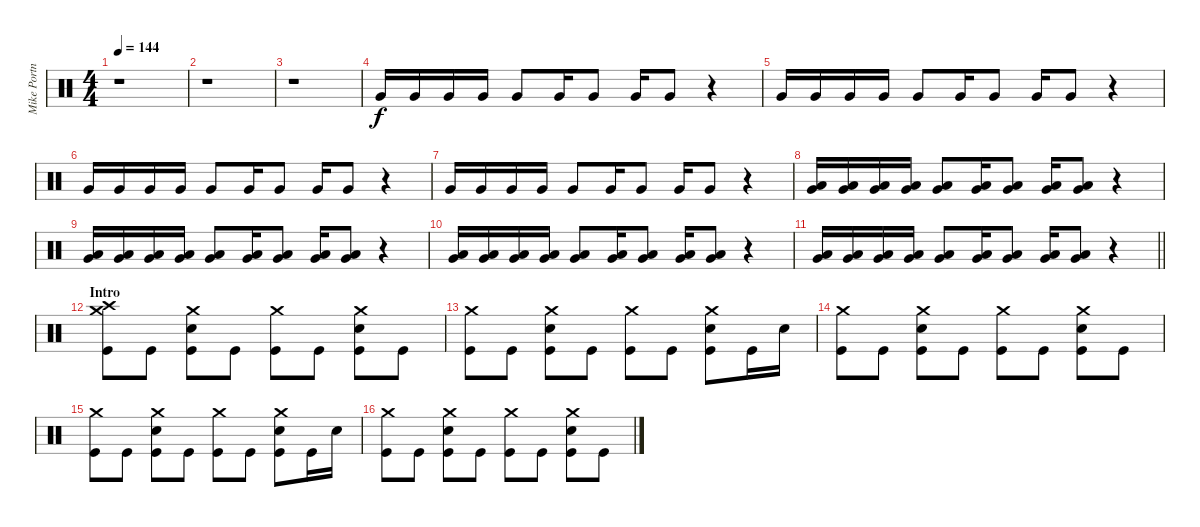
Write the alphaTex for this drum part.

\track ("Mike Portnoy" "Mike Portn") {instrument percussion}
\staff {score}
\articulation defaults
\ts (4 4)
\tempo 144
\clef neutral
\ks c
r.1{dy f} |
r.1 |
r.1 |
"Very Low Tom (hit)".16{balance 13} "Very Low Tom (hit)".16 "Very Low Tom (hit)".16 "Very Low Tom (hit)".16 "Very Low Tom (hit)".8 "Very Low Tom (hit)".16 "Very Low Tom (hit)".8 "Very Low Tom (hit)".16 "Very Low Tom (hit)".8 r.4 |
"Very Low Tom (hit)".16 "Very Low Tom (hit)".16 "Very Low Tom (hit)".16 "Very Low Tom (hit)".16 "Very Low Tom (hit)".8 "Very Low Tom (hit)".16 "Very Low Tom (hit)".8 "Very Low Tom (hit)".16 "Very Low Tom (hit)".8 r.4 |
"Very Low Tom (hit)".16 "Very Low Tom (hit)".16 "Very Low Tom (hit)".16 "Very Low Tom (hit)".16 "Very Low Tom (hit)".8 "Very Low Tom (hit)".16 "Very Low Tom (hit)".8 "Very Low Tom (hit)".16 "Very Low Tom (hit)".8 r.4 |
"Very Low Tom (hit)".16 "Very Low Tom (hit)".16 "Very Low Tom (hit)".16 "Very Low Tom (hit)".16 "Very Low Tom (hit)".8 "Very Low Tom (hit)".16 "Very Low Tom (hit)".8 "Very Low Tom (hit)".16 "Very Low Tom (hit)".8 r.4 |
("Very Low Tom (hit)" "Low Floor Tom (hit)").16{balance 8} ("Very Low Tom (hit)" "Low Floor Tom (hit)").16 ("Very Low Tom (hit)" "Low Floor Tom (hit)").16 ("Very Low Tom (hit)" "Low Floor Tom (hit)").16 ("Very Low Tom (hit)" "Low Floor Tom (hit)").8 ("Very Low Tom (hit)" "Low Floor Tom (hit)").16 ("Very Low Tom (hit)" "Low Floor Tom (hit)").8 ("Very Low Tom (hit)" "Low Floor Tom (hit)").16 ("Very Low Tom (hit)" "Low Floor Tom (hit)").8 r.4 |
("Very Low Tom (hit)" "Low Floor Tom (hit)").16 ("Very Low Tom (hit)" "Low Floor Tom (hit)").16 ("Very Low Tom (hit)" "Low Floor Tom (hit)").16 ("Very Low Tom (hit)" "Low Floor Tom (hit)").16 ("Very Low Tom (hit)" "Low Floor Tom (hit)").8 ("Very Low Tom (hit)" "Low Floor Tom (hit)").16 ("Very Low Tom (hit)" "Low Floor Tom (hit)").8 ("Very Low Tom (hit)" "Low Floor Tom (hit)").16 ("Very Low Tom (hit)" "Low Floor Tom (hit)").8 r.4 |
("Very Low Tom (hit)" "Low Floor Tom (hit)").16 ("Very Low Tom (hit)" "Low Floor Tom (hit)").16 ("Very Low Tom (hit)" "Low Floor Tom (hit)").16 ("Very Low Tom (hit)" "Low Floor Tom (hit)").16 ("Very Low Tom (hit)" "Low Floor Tom (hit)").8 ("Very Low Tom (hit)" "Low Floor Tom (hit)").16 ("Very Low Tom (hit)" "Low Floor Tom (hit)").8 ("Very Low Tom (hit)" "Low Floor Tom (hit)").16 ("Very Low Tom (hit)" "Low Floor Tom (hit)").8 r.4 |
\barLineRight lightlight
("Very Low Tom (hit)" "Low Floor Tom (hit)").16 ("Very Low Tom (hit)" "Low Floor Tom (hit)").16 ("Very Low Tom (hit)" "Low Floor Tom (hit)").16 ("Very Low Tom (hit)" "Low Floor Tom (hit)").16 ("Very Low Tom (hit)" "Low Floor Tom (hit)").8 ("Very Low Tom (hit)" "Low Floor Tom (hit)").16 ("Very Low Tom (hit)" "Low Floor Tom (hit)").8 ("Very Low Tom (hit)" "Low Floor Tom (hit)").16 ("Very Low Tom (hit)" "Low Floor Tom (hit)").8 r.4 |
\section ("" "Intro")
("Crash medium (hit)" "Crash high (hit)" "Kick (hit)").8 "Kick (hit)".8 ("Crash medium (hit)" "Electric Snare (hit)" "Kick (hit)").8 "Kick (hit)".8 ("Crash medium (hit)" "Kick (hit)").8 "Kick (hit)".8 ("Crash medium (hit)" "Electric Snare (hit)" "Kick (hit)").8 "Kick (hit)".8 |
("Crash medium (hit)" "Kick (hit)").8 "Kick (hit)".8 ("Crash medium (hit)" "Electric Snare (hit)" "Kick (hit)").8 "Kick (hit)".8 ("Crash medium (hit)" "Kick (hit)").8 "Kick (hit)".8 ("Crash medium (hit)" "Electric Snare (hit)" "Kick (hit)").8 "Kick (hit)".16 "Electric Snare (hit)".16 |
("Crash medium (hit)" "Kick (hit)").8 "Kick (hit)".8 ("Crash medium (hit)" "Electric Snare (hit)" "Kick (hit)").8 "Kick (hit)".8 ("Crash medium (hit)" "Kick (hit)").8 "Kick (hit)".8 ("Crash medium (hit)" "Electric Snare (hit)" "Kick (hit)").8 "Kick (hit)".8 |
("Crash medium (hit)" "Kick (hit)").8 "Kick (hit)".8 ("Crash medium (hit)" "Electric Snare (hit)" "Kick (hit)").8 "Kick (hit)".8 ("Crash medium (hit)" "Kick (hit)").8 "Kick (hit)".8 ("Crash medium (hit)" "Electric Snare (hit)" "Kick (hit)").8 "Kick (hit)".16 "Electric Snare (hit)".16 |
("Crash medium (hit)" "Kick (hit)").8 "Kick (hit)".8 ("Crash medium (hit)" "Electric Snare (hit)" "Kick (hit)").8 "Kick (hit)".8 ("Crash medium (hit)" "Kick (hit)").8 "Kick (hit)".8 ("Crash medium (hit)" "Electric Snare (hit)" "Kick (hit)").8 "Kick (hit)".8
